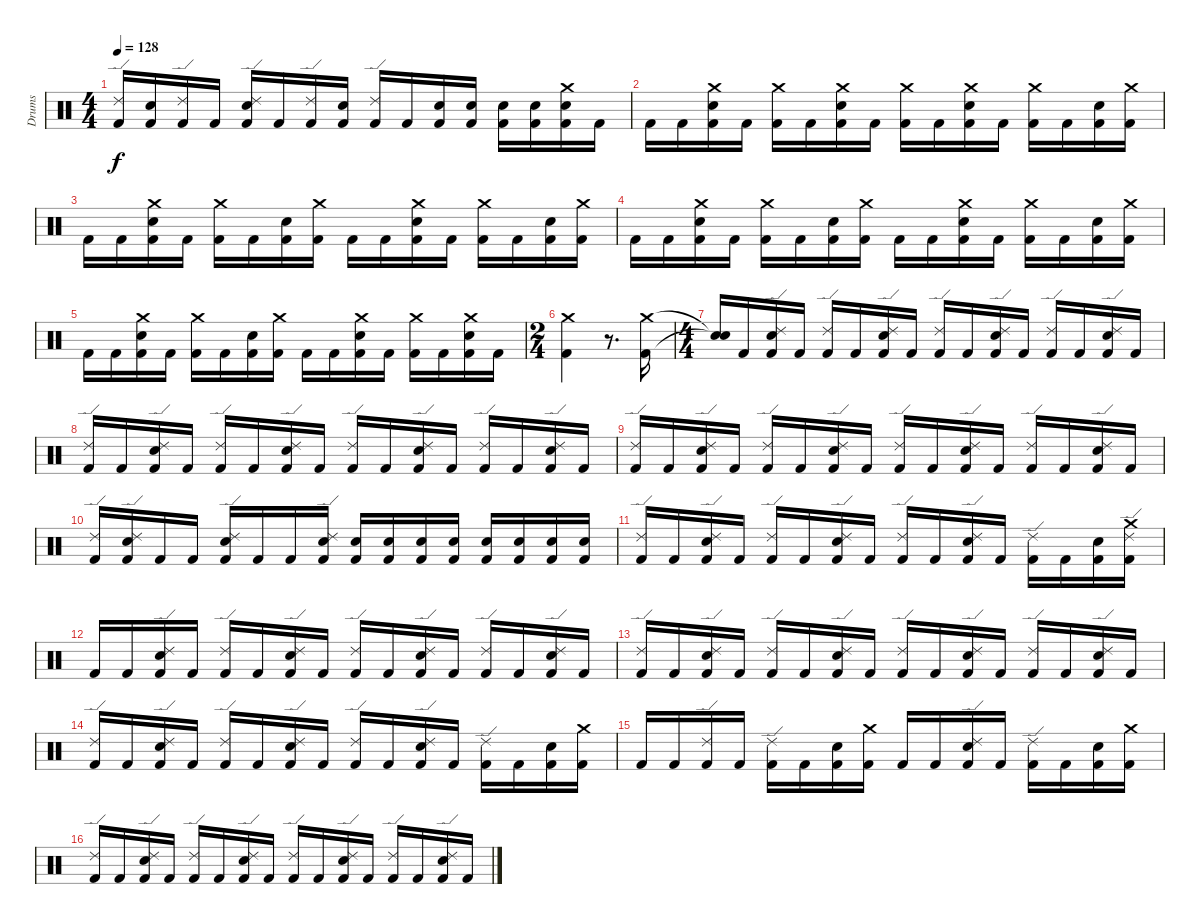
\track ("Drums" "Drums") {instrument percussion}
\staff {score}
\articulation defaults
\ts (4 4)
\tempo 128
\clef neutral
\ks c
("Ride (edge) 2" "Kick (hit) 2").16{dy f} ("Snare (hit) 2" "Kick (hit) 2").16 ("Ride (edge) 2" "Kick (hit) 2").16 "Kick (hit) 2".16 ("Ride (edge) 2" "Snare (hit) 2" "Kick (hit) 2").16 "Kick (hit) 2".16 ("Ride (edge) 2" "Kick (hit) 2").16 ("Snare (hit) 2" "Kick (hit) 2").16 ("Ride (edge) 2" "Kick (hit) 2").16 "Kick (hit) 2".16 ("Snare (hit) 2" "Kick (hit) 2").16 ("Snare (hit) 2" "Kick (hit) 2").16 ("Snare (hit) 2" "Kick (hit) 2").16 ("Snare (hit) 2" "Kick (hit) 2").16 ("Crash medium (hit)" "Snare (hit) 2" "Kick (hit) 2").16 "Kick (hit) 2".16 |
"Kick (hit) 2".16 "Kick (hit) 2".16 ("Crash medium (hit)" "Snare (hit) 2" "Kick (hit) 2").16 "Kick (hit) 2".16 ("Crash medium (hit)" "Kick (hit) 2").16 "Kick (hit) 2".16 ("Crash medium (hit)" "Snare (hit) 2" "Kick (hit) 2").16 "Kick (hit) 2".16 ("Crash medium (hit)" "Kick (hit) 2").16 "Kick (hit) 2".16 ("Crash medium (hit)" "Snare (hit) 2" "Kick (hit) 2").16 "Kick (hit) 2".16 ("Crash medium (hit)" "Kick (hit) 2").16 "Kick (hit) 2".16 ("Snare (hit) 2" "Kick (hit) 2").16 ("Crash medium (hit)" "Kick (hit) 2").16 |
"Kick (hit) 2".16 "Kick (hit) 2".16 ("Crash medium (hit)" "Snare (hit) 2" "Kick (hit) 2").16 "Kick (hit) 2".16 ("Crash medium (hit)" "Kick (hit) 2").16 "Kick (hit) 2".16 ("Snare (hit) 2" "Kick (hit) 2").16 ("Crash medium (hit)" "Kick (hit) 2").16 "Kick (hit) 2".16 "Kick (hit) 2".16 ("Crash medium (hit)" "Snare (hit) 2" "Kick (hit) 2").16 "Kick (hit) 2".16 ("Crash medium (hit)" "Kick (hit) 2").16 "Kick (hit) 2".16 ("Snare (hit) 2" "Kick (hit) 2").16 ("Crash medium (hit)" "Kick (hit) 2").16 |
"Kick (hit) 2".16 "Kick (hit) 2".16 ("Crash medium (hit)" "Snare (hit) 2" "Kick (hit) 2").16 "Kick (hit) 2".16 ("Crash medium (hit)" "Kick (hit) 2").16 "Kick (hit) 2".16 ("Snare (hit) 2" "Kick (hit) 2").16 ("Crash medium (hit)" "Kick (hit) 2").16 "Kick (hit) 2".16 "Kick (hit) 2".16 ("Crash medium (hit)" "Snare (hit) 2" "Kick (hit) 2").16 "Kick (hit) 2".16 ("Crash medium (hit)" "Kick (hit) 2").16 "Kick (hit) 2".16 ("Snare (hit) 2" "Kick (hit) 2").16 ("Crash medium (hit)" "Kick (hit) 2").16 |
"Kick (hit) 2".16 "Kick (hit) 2".16 ("Crash medium (hit)" "Snare (hit) 2" "Kick (hit) 2").16 "Kick (hit) 2".16 ("Crash medium (hit)" "Kick (hit) 2").16 "Kick (hit) 2".16 ("Snare (hit) 2" "Kick (hit) 2").16 ("Crash medium (hit)" "Kick (hit) 2").16 "Kick (hit) 2".16 "Kick (hit) 2".16 ("Crash medium (hit)" "Snare (hit) 2" "Kick (hit) 2").16 "Kick (hit) 2".16 ("Crash medium (hit)" "Kick (hit) 2").16 "Kick (hit) 2".16 ("Crash medium (hit)" "Snare (hit) 2" "Kick (hit) 2").16 "Kick (hit) 2".16 |
\ts (2 4)
("Crash medium (hit)" "Kick (hit) 2").4 r.8{d} ("Crash medium (hit)" "Kick (hit) 2").16 |
\ts (4 4)
("Snare (hit)"{t} "Snare (hit)"{t}).16 "Kick (hit) 2".16 ("Ride (edge) 2" "Snare (hit) 2" "Kick (hit) 2").16 "Kick (hit) 2".16 ("Ride (edge) 2" "Kick (hit) 2").16 "Kick (hit) 2".16 ("Ride (edge) 2" "Snare (hit) 2" "Kick (hit) 2").16 "Kick (hit) 2".16 ("Ride (edge) 2" "Kick (hit) 2").16 "Kick (hit) 2".16 ("Ride (edge) 2" "Snare (hit) 2" "Kick (hit) 2").16 "Kick (hit) 2".16 ("Ride (edge) 2" "Kick (hit) 2").16 "Kick (hit) 2".16 ("Ride (edge) 2" "Snare (hit) 2" "Kick (hit) 2").16 "Kick (hit) 2".16 |
("Ride (edge) 2" "Kick (hit) 2").16 "Kick (hit) 2".16 ("Ride (edge) 2" "Snare (hit) 2" "Kick (hit) 2").16 "Kick (hit) 2".16 ("Ride (edge) 2" "Kick (hit) 2").16 "Kick (hit) 2".16 ("Ride (edge) 2" "Snare (hit) 2" "Kick (hit) 2").16 "Kick (hit) 2".16 ("Ride (edge) 2" "Kick (hit) 2").16 "Kick (hit) 2".16 ("Ride (edge) 2" "Snare (hit) 2" "Kick (hit) 2").16 "Kick (hit) 2".16 ("Ride (edge) 2" "Kick (hit) 2").16 "Kick (hit) 2".16 ("Ride (edge) 2" "Snare (hit) 2" "Kick (hit) 2").16 "Kick (hit) 2".16 |
("Ride (edge) 2" "Kick (hit) 2").16 "Kick (hit) 2".16 ("Ride (edge) 2" "Snare (hit) 2" "Kick (hit) 2").16 "Kick (hit) 2".16 ("Ride (edge) 2" "Kick (hit) 2").16 "Kick (hit) 2".16 ("Ride (edge) 2" "Snare (hit) 2" "Kick (hit) 2").16 "Kick (hit) 2".16 ("Ride (edge) 2" "Kick (hit) 2").16 "Kick (hit) 2".16 ("Ride (edge) 2" "Snare (hit) 2" "Kick (hit) 2").16 "Kick (hit) 2".16 ("Ride (edge) 2" "Kick (hit) 2").16 "Kick (hit) 2".16 ("Ride (edge) 2" "Snare (hit) 2" "Kick (hit) 2").16 "Kick (hit) 2".16 |
("Ride (edge) 2" "Kick (hit) 2").16 ("Ride (edge) 2" "Snare (hit) 2" "Kick (hit) 2").16 "Kick (hit) 2".16 "Kick (hit) 2".16 ("Ride (edge) 2" "Snare (hit) 2" "Kick (hit) 2").16 "Kick (hit) 2".16 "Kick (hit) 2".16 ("Ride (edge) 2" "Snare (hit) 2" "Kick (hit) 2").16 ("Snare (hit) 2" "Kick (hit) 2").16 ("Snare (hit) 2" "Kick (hit) 2").16 ("Snare (hit) 2" "Kick (hit) 2").16 ("Snare (hit) 2" "Kick (hit) 2").16 ("Snare (hit) 2" "Kick (hit) 2").16 ("Snare (hit) 2" "Kick (hit) 2").16 ("Snare (hit) 2" "Kick (hit) 2").16 ("Snare (hit) 2" "Kick (hit) 2").16 |
("Ride (edge) 2" "Kick (hit) 2").16 "Kick (hit) 2".16 ("Ride (edge) 2" "Snare (hit) 2" "Kick (hit) 2").16 "Kick (hit) 2".16 ("Ride (edge) 2" "Kick (hit) 2").16 "Kick (hit) 2".16 ("Ride (edge) 2" "Snare (hit) 2" "Kick (hit) 2").16 "Kick (hit) 2".16 ("Ride (edge) 2" "Kick (hit) 2").16 "Kick (hit) 2".16 ("Ride (edge) 2" "Snare (hit) 2" "Kick (hit) 2").16 "Kick (hit) 2".16 ("Ride (edge) 2" "Kick (hit) 2").16 "Kick (hit) 2".16 ("Snare (hit) 2" "Kick (hit) 2").16 ("Crash medium (hit)" "Ride (edge) 2" "Kick (hit) 2").16 |
"Kick (hit) 2".16 "Kick (hit) 2".16 ("Ride (edge) 2" "Snare (hit) 2" "Kick (hit) 2").16 "Kick (hit) 2".16 ("Ride (edge) 2" "Kick (hit) 2").16 "Kick (hit) 2".16 ("Ride (edge) 2" "Snare (hit) 2" "Kick (hit) 2").16 "Kick (hit) 2".16 ("Ride (edge) 2" "Kick (hit) 2").16 "Kick (hit) 2".16 ("Ride (edge) 2" "Snare (hit) 2" "Kick (hit) 2").16 "Kick (hit) 2".16 ("Ride (edge) 2" "Kick (hit) 2").16 "Kick (hit) 2".16 ("Ride (edge) 2" "Snare (hit) 2" "Kick (hit) 2").16 "Kick (hit) 2".16 |
("Ride (edge) 2" "Kick (hit) 2").16 "Kick (hit) 2".16 ("Ride (edge) 2" "Snare (hit) 2" "Kick (hit) 2").16 "Kick (hit) 2".16 ("Ride (edge) 2" "Kick (hit) 2").16 "Kick (hit) 2".16 ("Ride (edge) 2" "Snare (hit) 2" "Kick (hit) 2").16 "Kick (hit) 2".16 ("Ride (edge) 2" "Kick (hit) 2").16 "Kick (hit) 2".16 ("Ride (edge) 2" "Snare (hit) 2" "Kick (hit) 2").16 "Kick (hit) 2".16 ("Ride (edge) 2" "Kick (hit) 2").16 "Kick (hit) 2".16 ("Ride (edge) 2" "Snare (hit) 2" "Kick (hit) 2").16 "Kick (hit) 2".16 |
("Ride (edge) 2" "Kick (hit) 2").16 "Kick (hit) 2".16 ("Ride (edge) 2" "Snare (hit) 2" "Kick (hit) 2").16 "Kick (hit) 2".16 ("Ride (edge) 2" "Kick (hit) 2").16 "Kick (hit) 2".16 ("Ride (edge) 2" "Snare (hit) 2" "Kick (hit) 2").16 "Kick (hit) 2".16 ("Ride (edge) 2" "Kick (hit) 2").16 "Kick (hit) 2".16 ("Ride (edge) 2" "Snare (hit) 2" "Kick (hit) 2").16 "Kick (hit) 2".16 ("Ride (edge) 2" "Kick (hit) 2").16 "Kick (hit) 2".16 ("Snare (hit) 2" "Kick (hit) 2").16 ("Crash medium (hit)" "Kick (hit) 2").16 |
"Kick (hit) 2".16 "Kick (hit) 2".16 ("Ride (edge) 2" "Kick (hit) 2").16 "Kick (hit) 2".16 ("Ride (edge) 2" "Kick (hit) 2").16 "Kick (hit) 2".16 ("Snare (hit) 2" "Kick (hit) 2").16 ("Crash medium (hit)" "Kick (hit) 2").16 "Kick (hit) 2".16 "Kick (hit) 2".16 ("Ride (edge) 2" "Snare (hit) 2" "Kick (hit) 2").16 "Kick (hit) 2".16 ("Ride (edge) 2" "Kick (hit) 2").16 "Kick (hit) 2".16 ("Snare (hit) 2" "Kick (hit) 2").16 ("Crash medium (hit)" "Kick (hit) 2").16 |
("Ride (edge) 2" "Kick (hit) 2").16 "Kick (hit) 2".16 ("Ride (edge) 2" "Snare (hit) 2" "Kick (hit) 2").16 "Kick (hit) 2".16 ("Ride (edge) 2" "Kick (hit) 2").16 "Kick (hit) 2".16 ("Ride (edge) 2" "Snare (hit) 2" "Kick (hit) 2").16 "Kick (hit) 2".16 ("Ride (edge) 2" "Kick (hit) 2").16 "Kick (hit) 2".16 ("Ride (edge) 2" "Snare (hit) 2" "Kick (hit) 2").16 "Kick (hit) 2".16 ("Ride (edge) 2" "Kick (hit) 2").16 "Kick (hit) 2".16 ("Ride (edge) 2" "Snare (hit) 2" "Kick (hit) 2").16 "Kick (hit) 2".16
